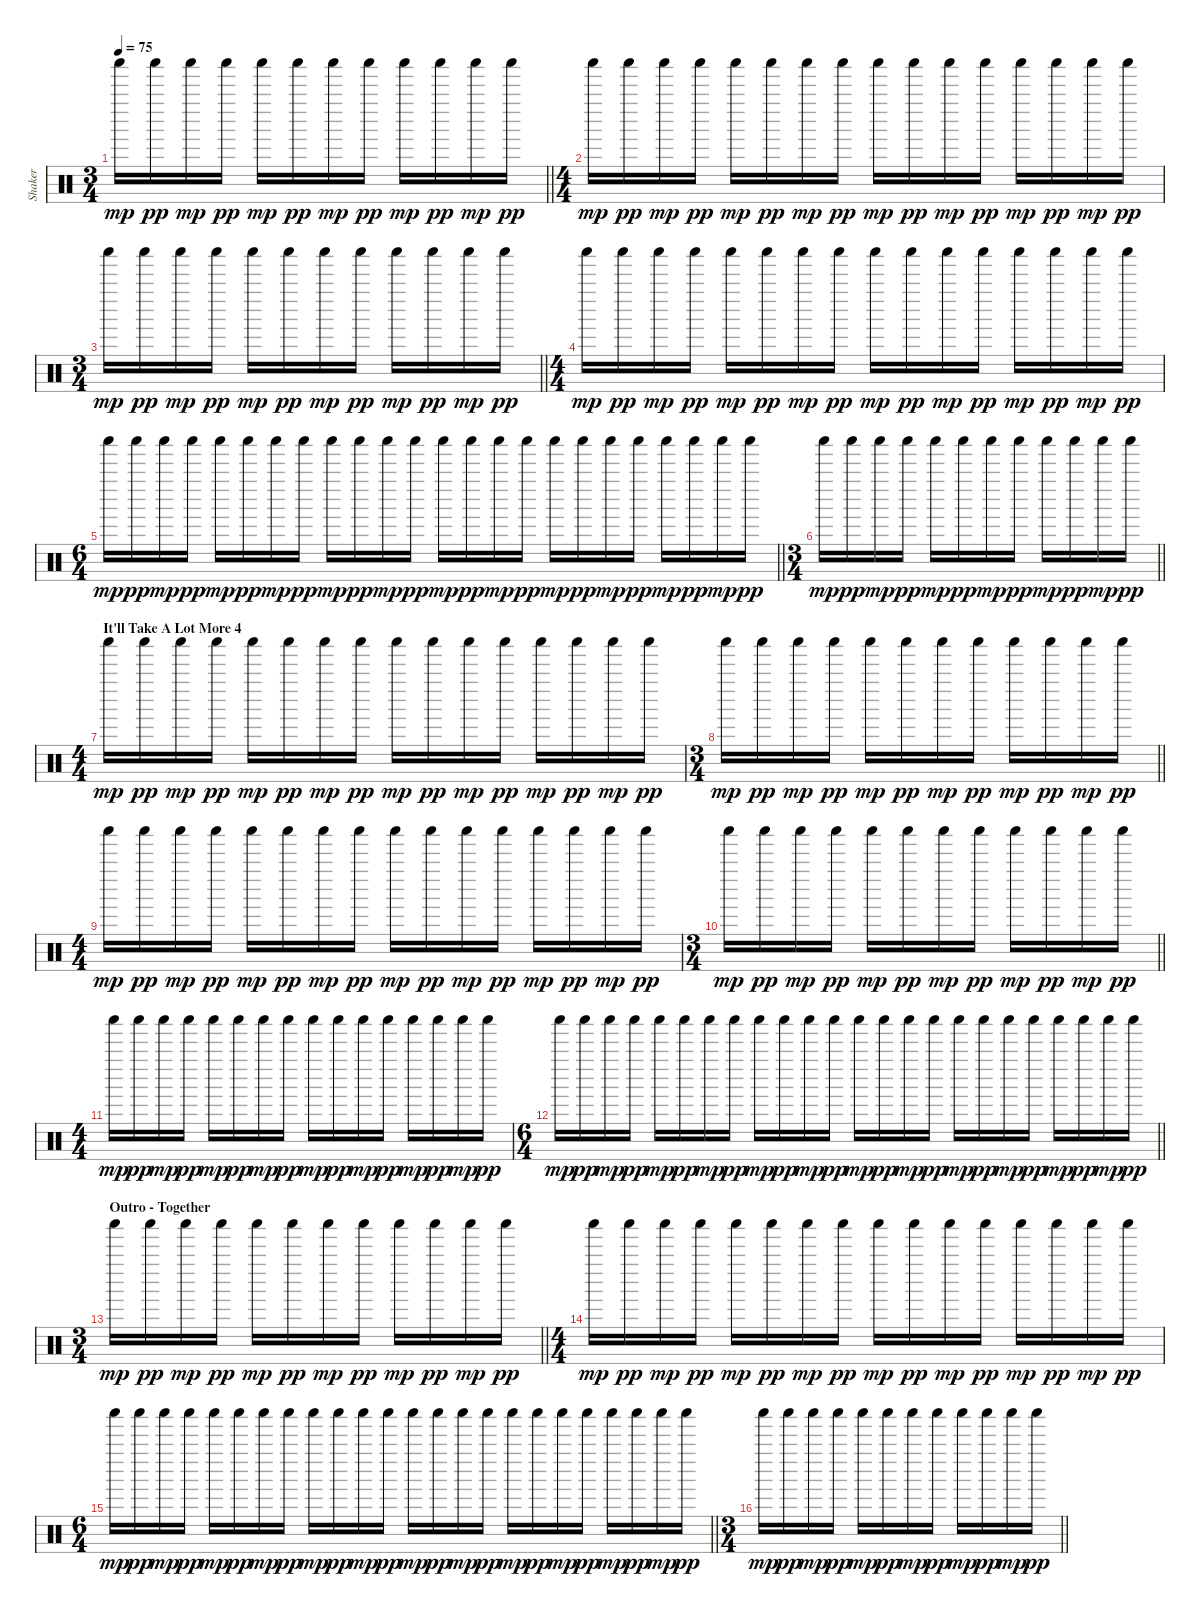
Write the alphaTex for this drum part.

\track ("Shaker" "Shaker") {instrument percussion}
\staff {score}
\articulation defaults
\ts (3 4)
\tempo 75
\clef neutral
\barLineRight lightlight
\ks c "Shaker (hit)".16{dy mp} "Shaker (hit)".16{dy pp} "Shaker (hit)".16{dy mp} "Shaker (hit)".16{dy pp} "Shaker (hit)".16{dy mp} "Shaker (hit)".16{dy pp} "Shaker (hit)".16{dy mp} "Shaker (hit)".16{dy pp} "Shaker (hit)".16{dy mp} "Shaker (hit)".16{dy pp} "Shaker (hit)".16{dy mp} "Shaker (hit)".16{dy pp}
|
\ts (4 4)
"Shaker (hit)".16{dy mp} "Shaker (hit)".16{dy pp} "Shaker (hit)".16{dy mp} "Shaker (hit)".16{dy pp} "Shaker (hit)".16{dy mp} "Shaker (hit)".16{dy pp} "Shaker (hit)".16{dy mp} "Shaker (hit)".16{dy pp} "Shaker (hit)".16{dy mp} "Shaker (hit)".16{dy pp} "Shaker (hit)".16{dy mp} "Shaker (hit)".16{dy pp} "Shaker (hit)".16{dy mp} "Shaker (hit)".16{dy pp} "Shaker (hit)".16{dy mp} "Shaker (hit)".16{dy pp} |
\ts (3 4)
\barLineRight lightlight "Shaker (hit)".16{dy mp} "Shaker (hit)".16{dy pp} "Shaker (hit)".16{dy mp} "Shaker (hit)".16{dy pp} "Shaker (hit)".16{dy mp} "Shaker (hit)".16{dy pp} "Shaker (hit)".16{dy mp} "Shaker (hit)".16{dy pp} "Shaker (hit)".16{dy mp} "Shaker (hit)".16{dy pp} "Shaker (hit)".16{dy mp} "Shaker (hit)".16{dy pp}
|
\ts (4 4)
"Shaker (hit)".16{dy mp} "Shaker (hit)".16{dy pp} "Shaker (hit)".16{dy mp} "Shaker (hit)".16{dy pp} "Shaker (hit)".16{dy mp} "Shaker (hit)".16{dy pp} "Shaker (hit)".16{dy mp} "Shaker (hit)".16{dy pp} "Shaker (hit)".16{dy mp} "Shaker (hit)".16{dy pp} "Shaker (hit)".16{dy mp} "Shaker (hit)".16{dy pp} "Shaker (hit)".16{dy mp} "Shaker (hit)".16{dy pp} "Shaker (hit)".16{dy mp} "Shaker (hit)".16{dy pp} |
\ts (6 4)
\barLineRight lightlight "Shaker (hit)".16{dy mp} "Shaker (hit)".16{dy pp} "Shaker (hit)".16{dy mp} "Shaker (hit)".16{dy pp} "Shaker (hit)".16{dy mp} "Shaker (hit)".16{dy pp} "Shaker (hit)".16{dy mp} "Shaker (hit)".16{dy pp} "Shaker (hit)".16{dy mp} "Shaker (hit)".16{dy pp} "Shaker (hit)".16{dy mp} "Shaker (hit)".16{dy pp} "Shaker (hit)".16{dy mp} "Shaker (hit)".16{dy pp} "Shaker (hit)".16{dy mp} "Shaker (hit)".16{dy pp} "Shaker (hit)".16{dy mp} "Shaker (hit)".16{dy pp} "Shaker (hit)".16{dy mp} "Shaker (hit)".16{dy pp} "Shaker (hit)".16{dy mp} "Shaker (hit)".16{dy pp} "Shaker (hit)".16{dy mp} "Shaker (hit)".16{dy pp}
|
\ts (3 4)
\barLineRight lightlight "Shaker (hit)".16{dy mp} "Shaker (hit)".16{dy pp} "Shaker (hit)".16{dy mp} "Shaker (hit)".16{dy pp} "Shaker (hit)".16{dy mp} "Shaker (hit)".16{dy pp} "Shaker (hit)".16{dy mp} "Shaker (hit)".16{dy pp} "Shaker (hit)".16{dy mp} "Shaker (hit)".16{dy pp} "Shaker (hit)".16{dy mp} "Shaker (hit)".16{dy pp}
|
\ts (4 4)
\section ("" "It'll Take A Lot More 4")
"Shaker (hit)".16{dy mp} "Shaker (hit)".16{dy pp} "Shaker (hit)".16{dy mp} "Shaker (hit)".16{dy pp} "Shaker (hit)".16{dy mp} "Shaker (hit)".16{dy pp} "Shaker (hit)".16{dy mp} "Shaker (hit)".16{dy pp} "Shaker (hit)".16{dy mp} "Shaker (hit)".16{dy pp} "Shaker (hit)".16{dy mp} "Shaker (hit)".16{dy pp} "Shaker (hit)".16{dy mp} "Shaker (hit)".16{dy pp} "Shaker (hit)".16{dy mp} "Shaker (hit)".16{dy pp} |
\ts (3 4)
\barLineRight lightlight "Shaker (hit)".16{dy mp} "Shaker (hit)".16{dy pp} "Shaker (hit)".16{dy mp} "Shaker (hit)".16{dy pp} "Shaker (hit)".16{dy mp} "Shaker (hit)".16{dy pp} "Shaker (hit)".16{dy mp} "Shaker (hit)".16{dy pp} "Shaker (hit)".16{dy mp} "Shaker (hit)".16{dy pp} "Shaker (hit)".16{dy mp} "Shaker (hit)".16{dy pp}
|
\ts (4 4)
"Shaker (hit)".16{dy mp} "Shaker (hit)".16{dy pp} "Shaker (hit)".16{dy mp} "Shaker (hit)".16{dy pp} "Shaker (hit)".16{dy mp} "Shaker (hit)".16{dy pp} "Shaker (hit)".16{dy mp} "Shaker (hit)".16{dy pp} "Shaker (hit)".16{dy mp} "Shaker (hit)".16{dy pp} "Shaker (hit)".16{dy mp} "Shaker (hit)".16{dy pp} "Shaker (hit)".16{dy mp} "Shaker (hit)".16{dy pp} "Shaker (hit)".16{dy mp} "Shaker (hit)".16{dy pp} |
\ts (3 4)
\barLineRight lightlight "Shaker (hit)".16{dy mp} "Shaker (hit)".16{dy pp} "Shaker (hit)".16{dy mp} "Shaker (hit)".16{dy pp} "Shaker (hit)".16{dy mp} "Shaker (hit)".16{dy pp} "Shaker (hit)".16{dy mp} "Shaker (hit)".16{dy pp} "Shaker (hit)".16{dy mp} "Shaker (hit)".16{dy pp} "Shaker (hit)".16{dy mp} "Shaker (hit)".16{dy pp}
|
\ts (4 4)
"Shaker (hit)".16{dy mp} "Shaker (hit)".16{dy pp} "Shaker (hit)".16{dy mp} "Shaker (hit)".16{dy pp} "Shaker (hit)".16{dy mp} "Shaker (hit)".16{dy pp} "Shaker (hit)".16{dy mp} "Shaker (hit)".16{dy pp} "Shaker (hit)".16{dy mp} "Shaker (hit)".16{dy pp} "Shaker (hit)".16{dy mp} "Shaker (hit)".16{dy pp} "Shaker (hit)".16{dy mp} "Shaker (hit)".16{dy pp} "Shaker (hit)".16{dy mp} "Shaker (hit)".16{dy pp} |
\ts (6 4)
\barLineRight lightlight "Shaker (hit)".16{dy mp} "Shaker (hit)".16{dy pp} "Shaker (hit)".16{dy mp} "Shaker (hit)".16{dy pp} "Shaker (hit)".16{dy mp} "Shaker (hit)".16{dy pp} "Shaker (hit)".16{dy mp} "Shaker (hit)".16{dy pp} "Shaker (hit)".16{dy mp} "Shaker (hit)".16{dy pp} "Shaker (hit)".16{dy mp} "Shaker (hit)".16{dy pp} "Shaker (hit)".16{dy mp} "Shaker (hit)".16{dy pp} "Shaker (hit)".16{dy mp} "Shaker (hit)".16{dy pp} "Shaker (hit)".16{dy mp} "Shaker (hit)".16{dy pp} "Shaker (hit)".16{dy mp} "Shaker (hit)".16{dy pp} "Shaker (hit)".16{dy mp} "Shaker (hit)".16{dy pp} "Shaker (hit)".16{dy mp} "Shaker (hit)".16{dy pp}
|
\ts (3 4)
\section ("" "Outro - Together")
\barLineRight lightlight "Shaker (hit)".16{dy mp} "Shaker (hit)".16{dy pp} "Shaker (hit)".16{dy mp} "Shaker (hit)".16{dy pp} "Shaker (hit)".16{dy mp} "Shaker (hit)".16{dy pp} "Shaker (hit)".16{dy mp} "Shaker (hit)".16{dy pp} "Shaker (hit)".16{dy mp} "Shaker (hit)".16{dy pp} "Shaker (hit)".16{dy mp} "Shaker (hit)".16{dy pp}
|
\ts (4 4)
"Shaker (hit)".16{dy mp} "Shaker (hit)".16{dy pp} "Shaker (hit)".16{dy mp} "Shaker (hit)".16{dy pp} "Shaker (hit)".16{dy mp} "Shaker (hit)".16{dy pp} "Shaker (hit)".16{dy mp} "Shaker (hit)".16{dy pp} "Shaker (hit)".16{dy mp} "Shaker (hit)".16{dy pp} "Shaker (hit)".16{dy mp} "Shaker (hit)".16{dy pp} "Shaker (hit)".16{dy mp} "Shaker (hit)".16{dy pp} "Shaker (hit)".16{dy mp} "Shaker (hit)".16{dy pp} |
\ts (6 4)
\barLineRight lightlight "Shaker (hit)".16{dy mp} "Shaker (hit)".16{dy pp} "Shaker (hit)".16{dy mp} "Shaker (hit)".16{dy pp} "Shaker (hit)".16{dy mp} "Shaker (hit)".16{dy pp} "Shaker (hit)".16{dy mp} "Shaker (hit)".16{dy pp} "Shaker (hit)".16{dy mp} "Shaker (hit)".16{dy pp} "Shaker (hit)".16{dy mp} "Shaker (hit)".16{dy pp} "Shaker (hit)".16{dy mp} "Shaker (hit)".16{dy pp} "Shaker (hit)".16{dy mp} "Shaker (hit)".16{dy pp} "Shaker (hit)".16{dy mp} "Shaker (hit)".16{dy pp} "Shaker (hit)".16{dy mp} "Shaker (hit)".16{dy pp} "Shaker (hit)".16{dy mp} "Shaker (hit)".16{dy pp} "Shaker (hit)".16{dy mp} "Shaker (hit)".16{dy pp}
|
\ts (3 4)
\barLineRight lightlight "Shaker (hit)".16{dy mp} "Shaker (hit)".16{dy pp} "Shaker (hit)".16{dy mp} "Shaker (hit)".16{dy pp} "Shaker (hit)".16{dy mp} "Shaker (hit)".16{dy pp} "Shaker (hit)".16{dy mp} "Shaker (hit)".16{dy pp} "Shaker (hit)".16{dy mp} "Shaker (hit)".16{dy pp} "Shaker (hit)".16{dy mp} "Shaker (hit)".16{dy pp}
